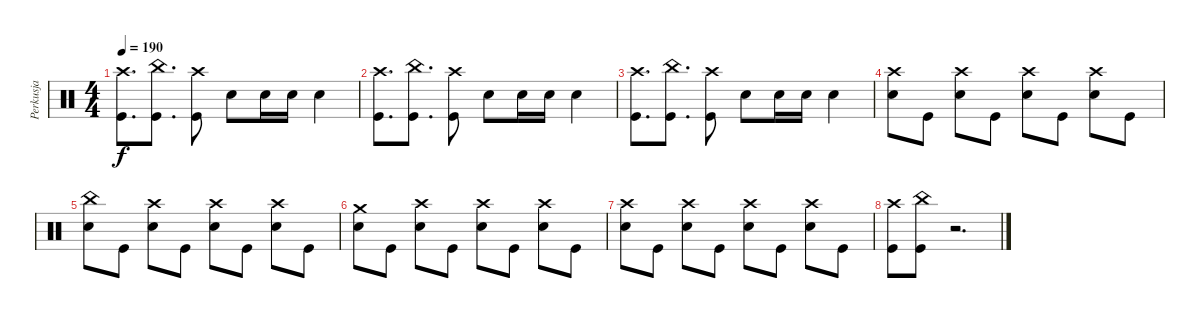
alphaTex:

\track ("Perkusja" "Perkusja") {instrument percussion}
\staff {score}
\articulation defaults
\ts (4 4)
\tempo 190
\clef neutral
\ks c
("Crash high (hit)" "Kick (hit)").8{d dy f} ("China (hit)" "Kick (hit)").8{d} ("Crash high (hit)" "Kick (hit)").8 "Electric Snare (hit)".8 "Electric Snare (hit)".16 "Electric Snare (hit)".16 "Electric Snare (hit)".4 |
("Crash high (hit)" "Kick (hit)").8{d} ("China (hit)" "Kick (hit)").8{d} ("Crash high (hit)" "Kick (hit)").8 "Electric Snare (hit)".8 "Electric Snare (hit)".16 "Electric Snare (hit)".16 "Electric Snare (hit)".4 |
("Crash high (hit)" "Kick (hit)").8{d} ("China (hit)" "Kick (hit)").8{d} ("Crash high (hit)" "Kick (hit)").8 "Electric Snare (hit)".8 "Electric Snare (hit)".16 "Electric Snare (hit)".16 "Electric Snare (hit)".4 |
("Crash high (hit)" "Electric Snare (hit)").8 "Kick (hit)".8 ("Crash high (hit)" "Electric Snare (hit)").8 "Kick (hit)".8 ("Crash high (hit)" "Electric Snare (hit)").8 "Kick (hit)".8 ("Crash high (hit)" "Electric Snare (hit)").8 "Kick (hit)".8 |
("China (hit)" "Electric Snare (hit)").8 "Kick (hit)".8 ("Crash high (hit)" "Electric Snare (hit)").8 "Kick (hit)".8 ("Crash high (hit)" "Electric Snare (hit)").8 "Kick (hit)".8 ("Crash high (hit)" "Electric Snare (hit)").8 "Kick (hit)".8 |
("Crash medium (hit)" "Electric Snare (hit)").8 "Kick (hit)".8 ("Crash high (hit)" "Electric Snare (hit)").8 "Kick (hit)".8 ("Crash high (hit)" "Electric Snare (hit)").8 "Kick (hit)".8 ("Crash high (hit)" "Electric Snare (hit)").8 "Kick (hit)".8 |
("Crash high (hit)" "Electric Snare (hit)").8 "Kick (hit)".8 ("Crash high (hit)" "Electric Snare (hit)").8 "Kick (hit)".8 ("Crash high (hit)" "Electric Snare (hit)").8 "Kick (hit)".8 ("Crash high (hit)" "Electric Snare (hit)").8 "Kick (hit)".8 |
("Crash high (hit)" "Kick (hit)").8 ("China (hit)" "Kick (hit)").8 r.2{d}
